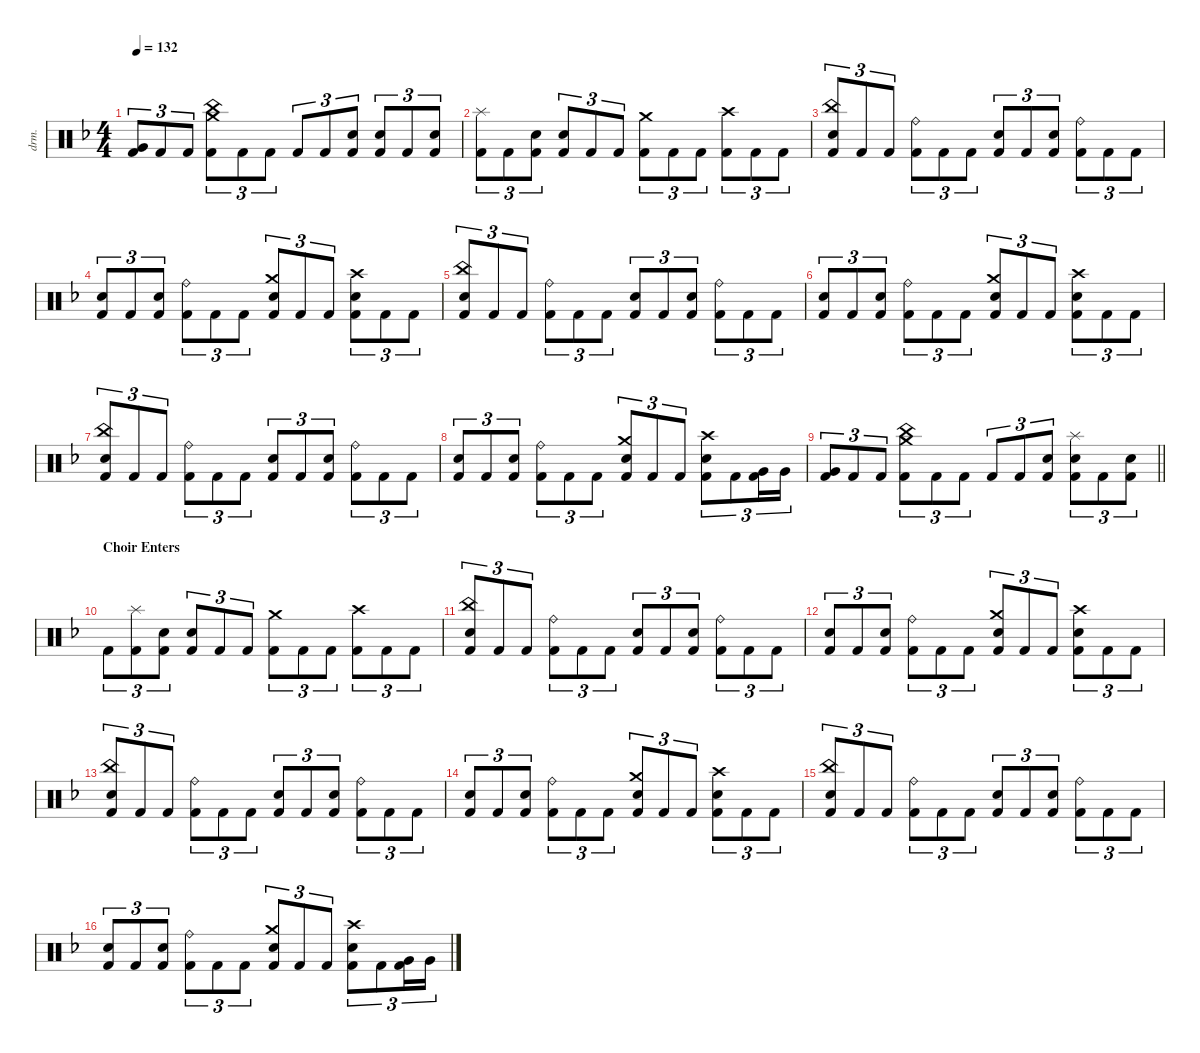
\defaultSystemsLayout 4
\hideDynamics
\bracketExtendMode nobrackets
\otherSystemsTrackNameOrientation horizontal
\track ("Drums" "drm.") {instrument percussion}
\staff {score}
\articulation defaults
\ts (4 4)
\tempo 132
\clef neutral
\ks dminor
("Very Low Tom (hit)"{acc forcenatural} "Kick (hit) 2"{acc forcenatural}).8{tu (3 2) dy f} "Kick (hit) 2"{acc forcenatural}.8{tu (3 2)} "Kick (hit) 2"{acc forcenatural}.8{tu (3 2)} ("China (hit)"{acc forcenatural} "Crash medium (hit)"{acc forcenatural} "Kick (hit) 2"{acc forcenatural}).8{tu (3 2)} "Kick (hit) 2"{acc forcenatural}.8{tu (3 2)} "Kick (hit) 2"{acc forcenatural}.8{tu (3 2)} "Kick (hit) 2"{acc forcenatural}.8{tu (3 2)} "Kick (hit) 2"{acc forcenatural}.8{tu (3 2)} ("Snare (hit) 2"{acc forcenatural} "Kick (hit) 2"{acc forcenatural}).8{tu (3 2)} ("Snare (hit) 2"{acc forcenatural} "Kick (hit) 2"{acc forcenatural}).8{tu (3 2)} "Kick (hit) 2"{acc forcenatural}.8{tu (3 2)} ("Snare (hit) 2"{acc forcenatural} "Kick (hit) 2"{acc forcenatural}).8{tu (3 2)} |
("Splash (hit)"{acc forcenatural} "Kick (hit) 2"{acc forcenatural}).8{tu (3 2)} "Kick (hit) 2"{acc forcenatural}.8{tu (3 2)} ("Snare (hit) 2"{acc forcenatural} "Kick (hit) 2"{acc forcenatural}).8{tu (3 2)} ("Snare (hit) 2"{acc forcenatural} "Kick (hit) 2"{acc forcenatural}).8{tu (3 2)} "Kick (hit) 2"{acc forcenatural}.8{tu (3 2)} "Kick (hit) 2"{acc forcenatural}.8{tu (3 2)} ("Crash medium (hit)"{acc forcenatural} "Kick (hit) 2"{acc forcenatural}).8{tu (3 2)} "Kick (hit) 2"{acc forcenatural}.8{tu (3 2)} "Kick (hit) 2"{acc forcenatural}.8{tu (3 2)} ("Crash high (hit)"{acc forcenatural} "Kick (hit) 2"{acc forcenatural}).8{tu (3 2)} "Kick (hit) 2"{acc forcenatural}.8{tu (3 2)} "Kick (hit) 2"{acc forcenatural}.8{tu (3 2)} |
("China (hit)"{acc forcenatural} "Snare (hit) 2"{acc forcenatural} "Kick (hit) 2"{acc forcenatural}).8{tu (3 2)} "Kick (hit) 2"{acc forcenatural}.8{tu (3 2)} "Kick (hit) 2"{acc forcenatural}.8{tu (3 2)} ("Ride (bell)"{acc forcenatural} "Kick (hit) 2"{acc forcenatural}).8{tu (3 2)} "Kick (hit) 2"{acc forcenatural}.8{tu (3 2)} "Kick (hit) 2"{acc forcenatural}.8{tu (3 2)} ("Snare (hit) 2"{acc forcenatural} "Kick (hit) 2"{acc forcenatural}).8{tu (3 2)} "Kick (hit) 2"{acc forcenatural}.8{tu (3 2)} ("Snare (hit) 2"{acc forcenatural} "Kick (hit) 2"{acc forcenatural}).8{tu (3 2)} ("Ride (bell)"{acc forcenatural} "Kick (hit) 2"{acc forcenatural}).8{tu (3 2)} "Kick (hit) 2"{acc forcenatural}.8{tu (3 2)} "Kick (hit) 2"{acc forcenatural}.8{tu (3 2)} |
("Snare (hit) 2"{acc forcenatural} "Kick (hit) 2"{acc forcenatural}).8{tu (3 2)} "Kick (hit) 2"{acc forcenatural}.8{tu (3 2)} ("Snare (hit) 2"{acc forcenatural} "Kick (hit) 2"{acc forcenatural}).8{tu (3 2)} ("Ride (bell)"{acc forcenatural} "Kick (hit) 2"{acc forcenatural}).8{tu (3 2)} "Kick (hit) 2"{acc forcenatural}.8{tu (3 2)} "Kick (hit) 2"{acc forcenatural}.8{tu (3 2)} ("Crash medium (hit)"{acc forcenatural} "Snare (hit) 2"{acc forcenatural} "Kick (hit) 2"{acc forcenatural}).8{tu (3 2)} "Kick (hit) 2"{acc forcenatural}.8{tu (3 2)} "Kick (hit) 2"{acc forcenatural}.8{tu (3 2)} ("Crash high (hit)"{acc forcenatural} "Snare (hit) 2"{acc forcenatural} "Kick (hit) 2"{acc forcenatural}).8{tu (3 2)} "Kick (hit) 2"{acc forcenatural}.8{tu (3 2)} "Kick (hit) 2"{acc forcenatural}.8{tu (3 2)} |
("China (hit)"{acc forcenatural} "Snare (hit) 2"{acc forcenatural} "Kick (hit) 2"{acc forcenatural}).8{tu (3 2)} "Kick (hit) 2"{acc forcenatural}.8{tu (3 2)} "Kick (hit) 2"{acc forcenatural}.8{tu (3 2)} ("Ride (bell)"{acc forcenatural} "Kick (hit) 2"{acc forcenatural}).8{tu (3 2)} "Kick (hit) 2"{acc forcenatural}.8{tu (3 2)} "Kick (hit) 2"{acc forcenatural}.8{tu (3 2)} ("Snare (hit) 2"{acc forcenatural} "Kick (hit) 2"{acc forcenatural}).8{tu (3 2)} "Kick (hit) 2"{acc forcenatural}.8{tu (3 2)} ("Snare (hit) 2"{acc forcenatural} "Kick (hit) 2"{acc forcenatural}).8{tu (3 2)} ("Ride (bell)"{acc forcenatural} "Kick (hit) 2"{acc forcenatural}).8{tu (3 2)} "Kick (hit) 2"{acc forcenatural}.8{tu (3 2)} "Kick (hit) 2"{acc forcenatural}.8{tu (3 2)} |
("Snare (hit) 2"{acc forcenatural} "Kick (hit) 2"{acc forcenatural}).8{tu (3 2)} "Kick (hit) 2"{acc forcenatural}.8{tu (3 2)} ("Snare (hit) 2"{acc forcenatural} "Kick (hit) 2"{acc forcenatural}).8{tu (3 2)} ("Ride (bell)"{acc forcenatural} "Kick (hit) 2"{acc forcenatural}).8{tu (3 2)} "Kick (hit) 2"{acc forcenatural}.8{tu (3 2)} "Kick (hit) 2"{acc forcenatural}.8{tu (3 2)} ("Crash medium (hit)"{acc forcenatural} "Snare (hit) 2"{acc forcenatural} "Kick (hit) 2"{acc forcenatural}).8{tu (3 2)} "Kick (hit) 2"{acc forcenatural}.8{tu (3 2)} "Kick (hit) 2"{acc forcenatural}.8{tu (3 2)} ("Crash high (hit)"{acc forcenatural} "Snare (hit) 2"{acc forcenatural} "Kick (hit) 2"{acc forcenatural}).8{tu (3 2)} "Kick (hit) 2"{acc forcenatural}.8{tu (3 2)} "Kick (hit) 2"{acc forcenatural}.8{tu (3 2)} |
("China (hit)"{acc forcenatural} "Snare (hit) 2"{acc forcenatural} "Kick (hit) 2"{acc forcenatural}).8{tu (3 2)} "Kick (hit) 2"{acc forcenatural}.8{tu (3 2)} "Kick (hit) 2"{acc forcenatural}.8{tu (3 2)} ("Ride (bell)"{acc forcenatural} "Kick (hit) 2"{acc forcenatural}).8{tu (3 2)} "Kick (hit) 2"{acc forcenatural}.8{tu (3 2)} "Kick (hit) 2"{acc forcenatural}.8{tu (3 2)} ("Snare (hit) 2"{acc forcenatural} "Kick (hit) 2"{acc forcenatural}).8{tu (3 2)} "Kick (hit) 2"{acc forcenatural}.8{tu (3 2)} ("Snare (hit) 2"{acc forcenatural} "Kick (hit) 2"{acc forcenatural}).8{tu (3 2)} ("Ride (bell)"{acc forcenatural} "Kick (hit) 2"{acc forcenatural}).8{tu (3 2)} "Kick (hit) 2"{acc forcenatural}.8{tu (3 2)} "Kick (hit) 2"{acc forcenatural}.8{tu (3 2)} |
("Snare (hit) 2"{acc forcenatural} "Kick (hit) 2"{acc forcenatural}).8{tu (3 2)} "Kick (hit) 2"{acc forcenatural}.8{tu (3 2)} ("Snare (hit) 2"{acc forcenatural} "Kick (hit) 2"{acc forcenatural}).8{tu (3 2)} ("Ride (bell)"{acc forcenatural} "Kick (hit) 2"{acc forcenatural}).8{tu (3 2)} "Kick (hit) 2"{acc forcenatural}.8{tu (3 2)} "Kick (hit) 2"{acc forcenatural}.8{tu (3 2)} ("Crash medium (hit)"{acc forcenatural} "Snare (hit) 2"{acc forcenatural} "Kick (hit) 2"{acc forcenatural}).8{tu (3 2)} "Kick (hit) 2"{acc forcenatural}.8{tu (3 2)} "Kick (hit) 2"{acc forcenatural}.8{tu (3 2)} ("Crash high (hit)"{acc forcenatural} "Snare (hit) 2"{acc forcenatural} "Kick (hit) 2"{acc forcenatural}).8{tu (3 2)} "Kick (hit) 2"{acc forcenatural}.8{tu (3 2)} ("Very Low Tom (hit)"{acc forcenatural} "Kick (hit) 2"{acc forcenatural}).16{tu (3 2)} "Very Low Tom (hit)"{acc forcenatural}.16{tu (3 2)} |
\barLineRight lightlight
("Very Low Tom (hit)"{acc forcenatural} "Kick (hit) 2"{acc forcenatural}).8{tu (3 2)} "Kick (hit) 2"{acc forcenatural}.8{tu (3 2)} "Kick (hit) 2"{acc forcenatural}.8{tu (3 2)} ("China (hit)"{acc forcenatural} "Crash medium (hit)"{acc forcenatural} "Kick (hit) 2"{acc forcenatural}).8{tu (3 2)} "Kick (hit) 2"{acc forcenatural}.8{tu (3 2)} "Kick (hit) 2"{acc forcenatural}.8{tu (3 2)} "Kick (hit) 2"{acc forcenatural}.8{tu (3 2)} "Kick (hit) 2"{acc forcenatural}.8{tu (3 2)} ("Snare (hit) 2"{acc forcenatural} "Kick (hit) 2"{acc forcenatural}).8{tu (3 2)} ("Splash (hit)"{acc forcenatural} "Snare (hit) 2"{acc forcenatural} "Kick (hit) 2"{acc forcenatural}).8{tu (3 2)} "Kick (hit) 2"{acc forcenatural}.8{tu (3 2)} ("Snare (hit) 2"{acc forcenatural} "Kick (hit) 2"{acc forcenatural}).8{tu (3 2)} |
\section ("" "Choir Enters")
"Kick (hit) 2"{acc forcenatural}.8{tu (3 2)} ("Splash (hit)"{acc forcenatural} "Kick (hit) 2"{acc forcenatural}).8{tu (3 2)} ("Snare (hit) 2"{acc forcenatural} "Kick (hit) 2"{acc forcenatural}).8{tu (3 2)} ("Snare (hit) 2"{acc forcenatural} "Kick (hit) 2"{acc forcenatural}).8{tu (3 2)} "Kick (hit) 2"{acc forcenatural}.8{tu (3 2)} "Kick (hit) 2"{acc forcenatural}.8{tu (3 2)} ("Crash medium (hit)"{acc forcenatural} "Kick (hit) 2"{acc forcenatural}).8{tu (3 2)} "Kick (hit) 2"{acc forcenatural}.8{tu (3 2)} "Kick (hit) 2"{acc forcenatural}.8{tu (3 2)} ("Crash high (hit)"{acc forcenatural} "Kick (hit) 2"{acc forcenatural}).8{tu (3 2)} "Kick (hit) 2"{acc forcenatural}.8{tu (3 2)} "Kick (hit) 2"{acc forcenatural}.8{tu (3 2)} |
("China (hit)"{acc forcenatural} "Snare (hit) 2"{acc forcenatural} "Kick (hit) 2"{acc forcenatural}).8{tu (3 2)} "Kick (hit) 2"{acc forcenatural}.8{tu (3 2)} "Kick (hit) 2"{acc forcenatural}.8{tu (3 2)} ("Ride (bell)"{acc forcenatural} "Kick (hit) 2"{acc forcenatural}).8{tu (3 2)} "Kick (hit) 2"{acc forcenatural}.8{tu (3 2)} "Kick (hit) 2"{acc forcenatural}.8{tu (3 2)} ("Snare (hit) 2"{acc forcenatural} "Kick (hit) 2"{acc forcenatural}).8{tu (3 2)} "Kick (hit) 2"{acc forcenatural}.8{tu (3 2)} ("Snare (hit) 2"{acc forcenatural} "Kick (hit) 2"{acc forcenatural}).8{tu (3 2)} ("Ride (bell)"{acc forcenatural} "Kick (hit) 2"{acc forcenatural}).8{tu (3 2)} "Kick (hit) 2"{acc forcenatural}.8{tu (3 2)} "Kick (hit) 2"{acc forcenatural}.8{tu (3 2)} |
("Snare (hit) 2"{acc forcenatural} "Kick (hit) 2"{acc forcenatural}).8{tu (3 2)} "Kick (hit) 2"{acc forcenatural}.8{tu (3 2)} ("Snare (hit) 2"{acc forcenatural} "Kick (hit) 2"{acc forcenatural}).8{tu (3 2)} ("Ride (bell)"{acc forcenatural} "Kick (hit) 2"{acc forcenatural}).8{tu (3 2)} "Kick (hit) 2"{acc forcenatural}.8{tu (3 2)} "Kick (hit) 2"{acc forcenatural}.8{tu (3 2)} ("Crash medium (hit)"{acc forcenatural} "Snare (hit) 2"{acc forcenatural} "Kick (hit) 2"{acc forcenatural}).8{tu (3 2)} "Kick (hit) 2"{acc forcenatural}.8{tu (3 2)} "Kick (hit) 2"{acc forcenatural}.8{tu (3 2)} ("Crash high (hit)"{acc forcenatural} "Snare (hit) 2"{acc forcenatural} "Kick (hit) 2"{acc forcenatural}).8{tu (3 2)} "Kick (hit) 2"{acc forcenatural}.8{tu (3 2)} "Kick (hit) 2"{acc forcenatural}.8{tu (3 2)} |
("China (hit)"{acc forcenatural} "Snare (hit) 2"{acc forcenatural} "Kick (hit) 2"{acc forcenatural}).8{tu (3 2)} "Kick (hit) 2"{acc forcenatural}.8{tu (3 2)} "Kick (hit) 2"{acc forcenatural}.8{tu (3 2)} ("Ride (bell)"{acc forcenatural} "Kick (hit) 2"{acc forcenatural}).8{tu (3 2)} "Kick (hit) 2"{acc forcenatural}.8{tu (3 2)} "Kick (hit) 2"{acc forcenatural}.8{tu (3 2)} ("Snare (hit) 2"{acc forcenatural} "Kick (hit) 2"{acc forcenatural}).8{tu (3 2)} "Kick (hit) 2"{acc forcenatural}.8{tu (3 2)} ("Snare (hit) 2"{acc forcenatural} "Kick (hit) 2"{acc forcenatural}).8{tu (3 2)} ("Ride (bell)"{acc forcenatural} "Kick (hit) 2"{acc forcenatural}).8{tu (3 2)} "Kick (hit) 2"{acc forcenatural}.8{tu (3 2)} "Kick (hit) 2"{acc forcenatural}.8{tu (3 2)} |
("Snare (hit) 2"{acc forcenatural} "Kick (hit) 2"{acc forcenatural}).8{tu (3 2)} "Kick (hit) 2"{acc forcenatural}.8{tu (3 2)} ("Snare (hit) 2"{acc forcenatural} "Kick (hit) 2"{acc forcenatural}).8{tu (3 2)} ("Ride (bell)"{acc forcenatural} "Kick (hit) 2"{acc forcenatural}).8{tu (3 2)} "Kick (hit) 2"{acc forcenatural}.8{tu (3 2)} "Kick (hit) 2"{acc forcenatural}.8{tu (3 2)} ("Crash medium (hit)"{acc forcenatural} "Snare (hit) 2"{acc forcenatural} "Kick (hit) 2"{acc forcenatural}).8{tu (3 2)} "Kick (hit) 2"{acc forcenatural}.8{tu (3 2)} "Kick (hit) 2"{acc forcenatural}.8{tu (3 2)} ("Crash high (hit)"{acc forcenatural} "Snare (hit) 2"{acc forcenatural} "Kick (hit) 2"{acc forcenatural}).8{tu (3 2)} "Kick (hit) 2"{acc forcenatural}.8{tu (3 2)} "Kick (hit) 2"{acc forcenatural}.8{tu (3 2)} |
("China (hit)"{acc forcenatural} "Snare (hit) 2"{acc forcenatural} "Kick (hit) 2"{acc forcenatural}).8{tu (3 2)} "Kick (hit) 2"{acc forcenatural}.8{tu (3 2)} "Kick (hit) 2"{acc forcenatural}.8{tu (3 2)} ("Ride (bell)"{acc forcenatural} "Kick (hit) 2"{acc forcenatural}).8{tu (3 2)} "Kick (hit) 2"{acc forcenatural}.8{tu (3 2)} "Kick (hit) 2"{acc forcenatural}.8{tu (3 2)} ("Snare (hit) 2"{acc forcenatural} "Kick (hit) 2"{acc forcenatural}).8{tu (3 2)} "Kick (hit) 2"{acc forcenatural}.8{tu (3 2)} ("Snare (hit) 2"{acc forcenatural} "Kick (hit) 2"{acc forcenatural}).8{tu (3 2)} ("Ride (bell)"{acc forcenatural} "Kick (hit) 2"{acc forcenatural}).8{tu (3 2)} "Kick (hit) 2"{acc forcenatural}.8{tu (3 2)} "Kick (hit) 2"{acc forcenatural}.8{tu (3 2)} |
("Snare (hit) 2"{acc forcenatural} "Kick (hit) 2"{acc forcenatural}).8{tu (3 2)} "Kick (hit) 2"{acc forcenatural}.8{tu (3 2)} ("Snare (hit) 2"{acc forcenatural} "Kick (hit) 2"{acc forcenatural}).8{tu (3 2)} ("Ride (bell)"{acc forcenatural} "Kick (hit) 2"{acc forcenatural}).8{tu (3 2)} "Kick (hit) 2"{acc forcenatural}.8{tu (3 2)} "Kick (hit) 2"{acc forcenatural}.8{tu (3 2)} ("Crash medium (hit)"{acc forcenatural} "Snare (hit) 2"{acc forcenatural} "Kick (hit) 2"{acc forcenatural}).8{tu (3 2)} "Kick (hit) 2"{acc forcenatural}.8{tu (3 2)} "Kick (hit) 2"{acc forcenatural}.8{tu (3 2)} ("Crash high (hit)"{acc forcenatural} "Snare (hit) 2"{acc forcenatural} "Kick (hit) 2"{acc forcenatural}).8{tu (3 2)} "Kick (hit) 2"{acc forcenatural}.8{tu (3 2)} ("Very Low Tom (hit)"{acc forcenatural} "Kick (hit) 2"{acc forcenatural}).16{tu (3 2)} "Very Low Tom (hit)"{acc forcenatural}.16{tu (3 2)}
